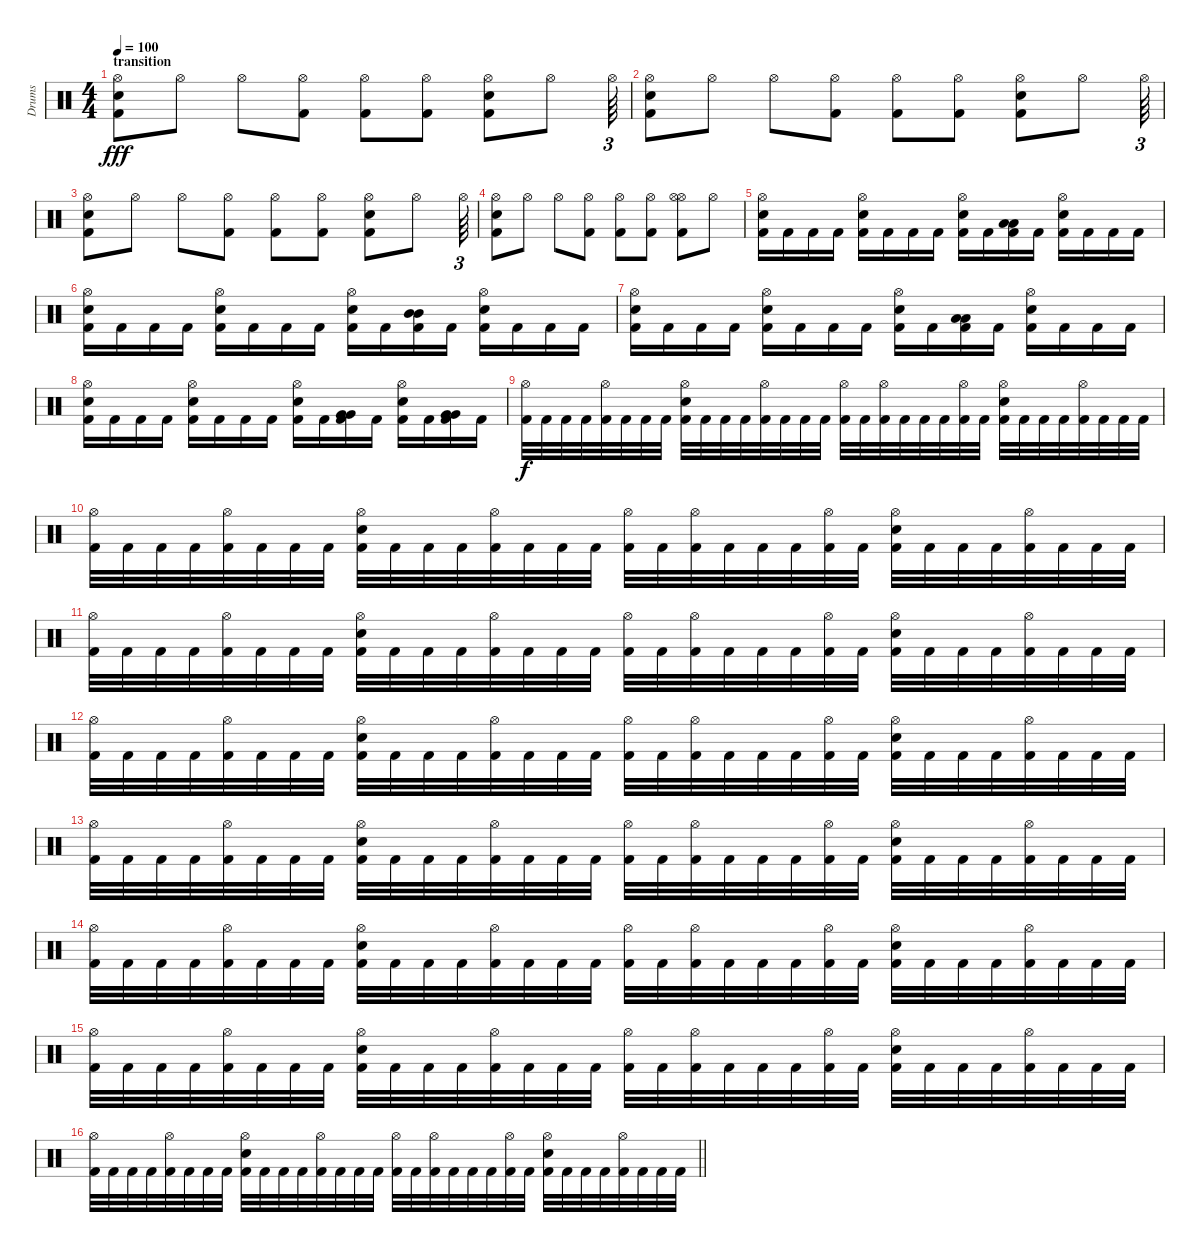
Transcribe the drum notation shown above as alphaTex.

\track ("Drums" "Drums") {instrument percussion}
\staff {score}
\articulation defaults
\ts (4 4)
\section ("" "transition")
\tempo 100
\clef neutral
\ks c
("Hi-Hat (open)" "Electric Snare (hit)" "Kick (hit) 2").8{dy fff} "Hi-Hat (open)".8 "Hi-Hat (open)".8 ("Hi-Hat (open)" "Kick (hit) 2").8 ("Hi-Hat (open)" "Kick (hit) 2").8 ("Hi-Hat (open)" "Kick (hit) 2").8 ("Hi-Hat (open)" "Electric Snare (hit)" "Kick (hit) 2").8 "Hi-Hat (open)".8 "Hi-Hat (open)".64{tu (3 2)} |
("Hi-Hat (open)" "Electric Snare (hit)" "Kick (hit) 2").8 "Hi-Hat (open)".8 "Hi-Hat (open)".8 ("Hi-Hat (open)" "Kick (hit) 2").8 ("Hi-Hat (open)" "Kick (hit) 2").8 ("Hi-Hat (open)" "Kick (hit) 2").8 ("Hi-Hat (open)" "Electric Snare (hit)" "Kick (hit) 2").8 "Hi-Hat (open)".8 "Hi-Hat (open)".64{tu (3 2)} |
("Hi-Hat (open)" "Electric Snare (hit)" "Kick (hit) 2").8 "Hi-Hat (open)".8 "Hi-Hat (open)".8 ("Hi-Hat (open)" "Kick (hit) 2").8 ("Hi-Hat (open)" "Kick (hit) 2").8 ("Hi-Hat (open)" "Kick (hit) 2").8 ("Hi-Hat (open)" "Electric Snare (hit)" "Kick (hit) 2").8 "Hi-Hat (open)".8 "Hi-Hat (open)".64{tu (3 2)} |
("Hi-Hat (open)" "Electric Snare (hit)" "Kick (hit) 2").8 "Hi-Hat (open)".8 "Hi-Hat (open)".8 ("Hi-Hat (open)" "Kick (hit) 2").8 ("Hi-Hat (open)" "Kick (hit) 2").8 ("Hi-Hat (open)" "Kick (hit) 2").8 ("Hi-Hat (open)" "Hi-Hat (open)" "Kick (hit) 2").8 "Hi-Hat (open)".8 |
("Hi-Hat (open)" "Electric Snare (hit)" "Kick (hit) 2").16 "Kick (hit) 2".16 "Kick (hit) 2".16 "Kick (hit) 2".16 ("Hi-Hat (open)" "Electric Snare (hit)" "Kick (hit) 2").16 "Kick (hit) 2".16 "Kick (hit) 2".16 "Kick (hit) 2".16 ("Hi-Hat (open)" "Electric Snare (hit)" "Kick (hit) 2").16 "Kick (hit) 2".16 ("Low Tom (hit)" "Low Tom (hit)" "Kick (hit) 2").16 "Kick (hit) 2".16 ("Hi-Hat (open)" "Electric Snare (hit)" "Kick (hit) 2").16 "Kick (hit) 2".16 "Kick (hit) 2".16 "Kick (hit) 2".16 |
("Hi-Hat (open)" "Electric Snare (hit)" "Kick (hit) 2").16 "Kick (hit) 2".16 "Kick (hit) 2".16 "Kick (hit) 2".16 ("Hi-Hat (open)" "Electric Snare (hit)" "Kick (hit) 2").16 "Kick (hit) 2".16 "Kick (hit) 2".16 "Kick (hit) 2".16 ("Hi-Hat (open)" "Electric Snare (hit)" "Kick (hit) 2").16 "Kick (hit) 2".16 ("Mid Tom (hit)" "Mid Tom (hit)" "Kick (hit) 2").16 "Kick (hit) 2".16 ("Hi-Hat (open)" "Electric Snare (hit)" "Kick (hit) 2").16 "Kick (hit) 2".16 "Kick (hit) 2".16 "Kick (hit) 2".16 |
("Hi-Hat (open)" "Electric Snare (hit)" "Kick (hit) 2").16 "Kick (hit) 2".16 "Kick (hit) 2".16 "Kick (hit) 2".16 ("Hi-Hat (open)" "Electric Snare (hit)" "Kick (hit) 2").16 "Kick (hit) 2".16 "Kick (hit) 2".16 "Kick (hit) 2".16 ("Hi-Hat (open)" "Electric Snare (hit)" "Kick (hit) 2").16 "Kick (hit) 2".16 ("Low Tom (hit)" "Low Tom (hit)" "Kick (hit) 2").16 "Kick (hit) 2".16 ("Hi-Hat (open)" "Electric Snare (hit)" "Kick (hit) 2").16 "Kick (hit) 2".16 "Kick (hit) 2".16 "Kick (hit) 2".16 |
("Hi-Hat (open)" "Electric Snare (hit)" "Kick (hit) 2").16 "Kick (hit) 2".16 "Kick (hit) 2".16 "Kick (hit) 2".16 ("Hi-Hat (open)" "Electric Snare (hit)" "Kick (hit) 2").16 "Kick (hit) 2".16 "Kick (hit) 2".16 "Kick (hit) 2".16 ("Hi-Hat (open)" "Electric Snare (hit)" "Kick (hit) 2").16 "Kick (hit) 2".16 ("Very Low Tom (hit)" "Very Low Tom (hit)" "Kick (hit) 2").16 "Kick (hit) 2".16 ("Hi-Hat (open)" "Electric Snare (hit)" "Kick (hit) 2").16 "Kick (hit) 2".16 ("Very Low Tom (hit)" "Very Low Tom (hit)" "Kick (hit) 2").16 "Kick (hit) 2".16 |
("Hi-Hat (open)" "Kick (hit) 2").32{dy f} "Kick (hit) 2".32 "Kick (hit) 2".32 "Kick (hit) 2".32 ("Hi-Hat (open)" "Kick (hit) 2").32 "Kick (hit) 2".32 "Kick (hit) 2".32 "Kick (hit) 2".32 ("Hi-Hat (open)" "Snare (hit) 2" "Kick (hit) 2").32 "Kick (hit) 2".32 "Kick (hit) 2".32 "Kick (hit) 2".32 ("Hi-Hat (open)" "Kick (hit) 2").32 "Kick (hit) 2".32 "Kick (hit) 2".32 "Kick (hit) 2".32 ("Hi-Hat (open)" "Kick (hit) 2").32 "Kick (hit) 2".32 ("Hi-Hat (open)" "Kick (hit) 2").32 "Kick (hit) 2".32 "Kick (hit) 2".32 "Kick (hit) 2".32 ("Hi-Hat (open)" "Kick (hit) 2").32 "Kick (hit) 2".32 ("Hi-Hat (open)" "Snare (hit) 2" "Kick (hit) 2").32 "Kick (hit) 2".32 "Kick (hit) 2".32 "Kick (hit) 2".32 ("Hi-Hat (open)" "Kick (hit) 2").32 "Kick (hit) 2".32 "Kick (hit) 2".32 "Kick (hit) 2".32 |
("Hi-Hat (open)" "Kick (hit) 2").32 "Kick (hit) 2".32 "Kick (hit) 2".32 "Kick (hit) 2".32 ("Hi-Hat (open)" "Kick (hit) 2").32 "Kick (hit) 2".32 "Kick (hit) 2".32 "Kick (hit) 2".32 ("Hi-Hat (open)" "Snare (hit) 2" "Kick (hit) 2").32 "Kick (hit) 2".32 "Kick (hit) 2".32 "Kick (hit) 2".32 ("Hi-Hat (open)" "Kick (hit) 2").32 "Kick (hit) 2".32 "Kick (hit) 2".32 "Kick (hit) 2".32 ("Hi-Hat (open)" "Kick (hit) 2").32 "Kick (hit) 2".32 ("Hi-Hat (open)" "Kick (hit) 2").32 "Kick (hit) 2".32 "Kick (hit) 2".32 "Kick (hit) 2".32 ("Hi-Hat (open)" "Kick (hit) 2").32 "Kick (hit) 2".32 ("Hi-Hat (open)" "Snare (hit) 2" "Kick (hit) 2").32 "Kick (hit) 2".32 "Kick (hit) 2".32 "Kick (hit) 2".32 ("Hi-Hat (open)" "Kick (hit) 2").32 "Kick (hit) 2".32 "Kick (hit) 2".32 "Kick (hit) 2".32 |
("Hi-Hat (open)" "Kick (hit) 2").32 "Kick (hit) 2".32 "Kick (hit) 2".32 "Kick (hit) 2".32 ("Hi-Hat (open)" "Kick (hit) 2").32 "Kick (hit) 2".32 "Kick (hit) 2".32 "Kick (hit) 2".32 ("Hi-Hat (open)" "Snare (hit) 2" "Kick (hit) 2").32 "Kick (hit) 2".32 "Kick (hit) 2".32 "Kick (hit) 2".32 ("Hi-Hat (open)" "Kick (hit) 2").32 "Kick (hit) 2".32 "Kick (hit) 2".32 "Kick (hit) 2".32 ("Hi-Hat (open)" "Kick (hit) 2").32 "Kick (hit) 2".32 ("Hi-Hat (open)" "Kick (hit) 2").32 "Kick (hit) 2".32 "Kick (hit) 2".32 "Kick (hit) 2".32 ("Hi-Hat (open)" "Kick (hit) 2").32 "Kick (hit) 2".32 ("Hi-Hat (open)" "Snare (hit) 2" "Kick (hit) 2").32 "Kick (hit) 2".32 "Kick (hit) 2".32 "Kick (hit) 2".32 ("Hi-Hat (open)" "Kick (hit) 2").32 "Kick (hit) 2".32 "Kick (hit) 2".32 "Kick (hit) 2".32 |
("Hi-Hat (open)" "Kick (hit) 2").32 "Kick (hit) 2".32 "Kick (hit) 2".32 "Kick (hit) 2".32 ("Hi-Hat (open)" "Kick (hit) 2").32 "Kick (hit) 2".32 "Kick (hit) 2".32 "Kick (hit) 2".32 ("Hi-Hat (open)" "Snare (hit) 2" "Kick (hit) 2").32 "Kick (hit) 2".32 "Kick (hit) 2".32 "Kick (hit) 2".32 ("Hi-Hat (open)" "Kick (hit) 2").32 "Kick (hit) 2".32 "Kick (hit) 2".32 "Kick (hit) 2".32 ("Hi-Hat (open)" "Kick (hit) 2").32 "Kick (hit) 2".32 ("Hi-Hat (open)" "Kick (hit) 2").32 "Kick (hit) 2".32 "Kick (hit) 2".32 "Kick (hit) 2".32 ("Hi-Hat (open)" "Kick (hit) 2").32 "Kick (hit) 2".32 ("Hi-Hat (open)" "Snare (hit) 2" "Kick (hit) 2").32 "Kick (hit) 2".32 "Kick (hit) 2".32 "Kick (hit) 2".32 ("Hi-Hat (open)" "Kick (hit) 2").32 "Kick (hit) 2".32 "Kick (hit) 2".32 "Kick (hit) 2".32 |
("Hi-Hat (open)" "Kick (hit) 2").32 "Kick (hit) 2".32 "Kick (hit) 2".32 "Kick (hit) 2".32 ("Hi-Hat (open)" "Kick (hit) 2").32 "Kick (hit) 2".32 "Kick (hit) 2".32 "Kick (hit) 2".32 ("Hi-Hat (open)" "Snare (hit) 2" "Kick (hit) 2").32 "Kick (hit) 2".32 "Kick (hit) 2".32 "Kick (hit) 2".32 ("Hi-Hat (open)" "Kick (hit) 2").32 "Kick (hit) 2".32 "Kick (hit) 2".32 "Kick (hit) 2".32 ("Hi-Hat (open)" "Kick (hit) 2").32 "Kick (hit) 2".32 ("Hi-Hat (open)" "Kick (hit) 2").32 "Kick (hit) 2".32 "Kick (hit) 2".32 "Kick (hit) 2".32 ("Hi-Hat (open)" "Kick (hit) 2").32 "Kick (hit) 2".32 ("Hi-Hat (open)" "Snare (hit) 2" "Kick (hit) 2").32 "Kick (hit) 2".32 "Kick (hit) 2".32 "Kick (hit) 2".32 ("Hi-Hat (open)" "Kick (hit) 2").32 "Kick (hit) 2".32 "Kick (hit) 2".32 "Kick (hit) 2".32 |
("Hi-Hat (open)" "Kick (hit) 2").32 "Kick (hit) 2".32 "Kick (hit) 2".32 "Kick (hit) 2".32 ("Hi-Hat (open)" "Kick (hit) 2").32 "Kick (hit) 2".32 "Kick (hit) 2".32 "Kick (hit) 2".32 ("Hi-Hat (open)" "Snare (hit) 2" "Kick (hit) 2").32 "Kick (hit) 2".32 "Kick (hit) 2".32 "Kick (hit) 2".32 ("Hi-Hat (open)" "Kick (hit) 2").32 "Kick (hit) 2".32 "Kick (hit) 2".32 "Kick (hit) 2".32 ("Hi-Hat (open)" "Kick (hit) 2").32 "Kick (hit) 2".32 ("Hi-Hat (open)" "Kick (hit) 2").32 "Kick (hit) 2".32 "Kick (hit) 2".32 "Kick (hit) 2".32 ("Hi-Hat (open)" "Kick (hit) 2").32 "Kick (hit) 2".32 ("Hi-Hat (open)" "Snare (hit) 2" "Kick (hit) 2").32 "Kick (hit) 2".32 "Kick (hit) 2".32 "Kick (hit) 2".32 ("Hi-Hat (open)" "Kick (hit) 2").32 "Kick (hit) 2".32 "Kick (hit) 2".32 "Kick (hit) 2".32 |
("Hi-Hat (open)" "Kick (hit) 2").32 "Kick (hit) 2".32 "Kick (hit) 2".32 "Kick (hit) 2".32 ("Hi-Hat (open)" "Kick (hit) 2").32 "Kick (hit) 2".32 "Kick (hit) 2".32 "Kick (hit) 2".32 ("Hi-Hat (open)" "Snare (hit) 2" "Kick (hit) 2").32 "Kick (hit) 2".32 "Kick (hit) 2".32 "Kick (hit) 2".32 ("Hi-Hat (open)" "Kick (hit) 2").32 "Kick (hit) 2".32 "Kick (hit) 2".32 "Kick (hit) 2".32 ("Hi-Hat (open)" "Kick (hit) 2").32 "Kick (hit) 2".32 ("Hi-Hat (open)" "Kick (hit) 2").32 "Kick (hit) 2".32 "Kick (hit) 2".32 "Kick (hit) 2".32 ("Hi-Hat (open)" "Kick (hit) 2").32 "Kick (hit) 2".32 ("Hi-Hat (open)" "Snare (hit) 2" "Kick (hit) 2").32 "Kick (hit) 2".32 "Kick (hit) 2".32 "Kick (hit) 2".32 ("Hi-Hat (open)" "Kick (hit) 2").32 "Kick (hit) 2".32 "Kick (hit) 2".32 "Kick (hit) 2".32 |
\barLineRight lightlight
("Hi-Hat (open)" "Kick (hit) 2").32 "Kick (hit) 2".32 "Kick (hit) 2".32 "Kick (hit) 2".32 ("Hi-Hat (open)" "Kick (hit) 2").32 "Kick (hit) 2".32 "Kick (hit) 2".32 "Kick (hit) 2".32 ("Hi-Hat (open)" "Snare (hit) 2" "Kick (hit) 2").32 "Kick (hit) 2".32 "Kick (hit) 2".32 "Kick (hit) 2".32 ("Hi-Hat (open)" "Kick (hit) 2").32 "Kick (hit) 2".32 "Kick (hit) 2".32 "Kick (hit) 2".32 ("Hi-Hat (open)" "Kick (hit) 2").32 "Kick (hit) 2".32 ("Hi-Hat (open)" "Kick (hit) 2").32 "Kick (hit) 2".32 "Kick (hit) 2".32 "Kick (hit) 2".32 ("Hi-Hat (open)" "Kick (hit) 2").32 "Kick (hit) 2".32 ("Hi-Hat (open)" "Snare (hit) 2" "Kick (hit) 2").32 "Kick (hit) 2".32 "Kick (hit) 2".32 "Kick (hit) 2".32 ("Hi-Hat (open)" "Kick (hit) 2").32 "Kick (hit) 2".32 "Kick (hit) 2".32 "Kick (hit) 2".32
